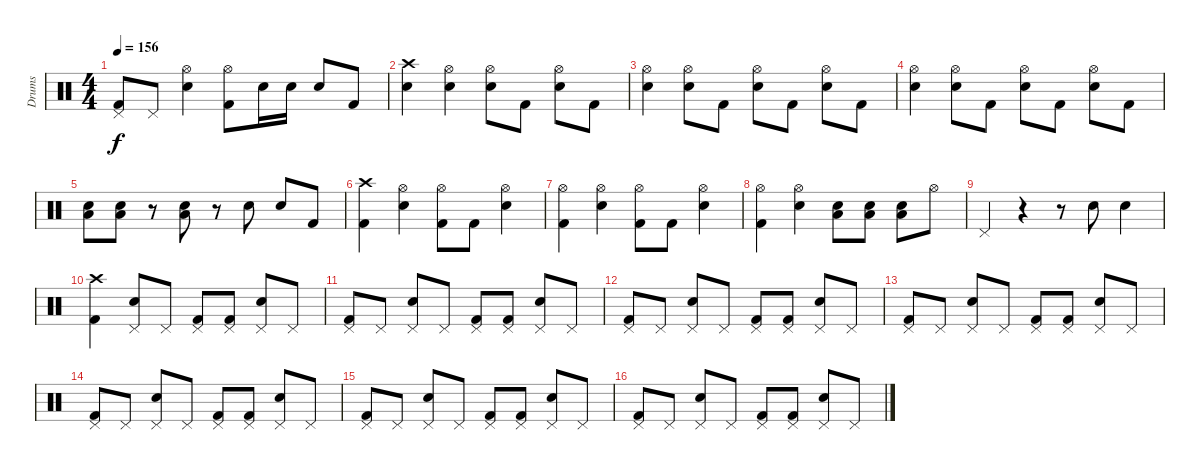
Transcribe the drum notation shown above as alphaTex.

\track ("Drums" "Drums") {instrument percussion}
\staff {score}
\articulation defaults
\ts (4 4)
\tempo 156
\clef neutral
\ks c
("Pedal Hi-Hat (hit)" "Kick (hit) 2").8{dy f} "Pedal Hi-Hat (hit)".8 ("Hi-Hat (open)" "Electric Snare (hit)").4 ("Hi-Hat (open)" "Kick (hit) 2").8 "Electric Snare (hit)".16 "Electric Snare (hit)".16 "Electric Snare (hit)".8 "Kick (hit) 2".8 |
("Crash high (hit)" "Electric Snare (hit)").4 ("Hi-Hat (open)" "Electric Snare (hit)").4 ("Hi-Hat (open)" "Electric Snare (hit)").8 "Kick (hit) 2".8 ("Hi-Hat (open)" "Electric Snare (hit)").8 "Kick (hit) 2".8 |
("Hi-Hat (open)" "Electric Snare (hit)").4 ("Hi-Hat (open)" "Electric Snare (hit)").8 "Kick (hit) 2".8 ("Hi-Hat (open)" "Electric Snare (hit)").8 "Kick (hit) 2".8 ("Hi-Hat (open)" "Electric Snare (hit)").8 "Kick (hit) 2".8 |
("Hi-Hat (open)" "Electric Snare (hit)").4 ("Hi-Hat (open)" "Electric Snare (hit)").8 "Kick (hit) 2".8 ("Hi-Hat (open)" "Electric Snare (hit)").8 "Kick (hit) 2".8 ("Hi-Hat (open)" "Electric Snare (hit)").8 "Kick (hit) 2".8 |
("Low Tom (hit)" "Electric Snare (hit)").8 ("Low Tom (hit)" "Electric Snare (hit)").8 r.8 ("Low Tom (hit)" "Electric Snare (hit)").8 r.8 "Electric Snare (hit)".8 "Electric Snare (hit)".8 "Kick (hit) 2".8 |
("Crash high (hit)" "Kick (hit) 2").4 ("Hi-Hat (open)" "Electric Snare (hit)").4 ("Hi-Hat (open)" "Kick (hit) 2").8 "Kick (hit) 2".8 ("Hi-Hat (open)" "Electric Snare (hit)").4 |
("Hi-Hat (open)" "Kick (hit) 2").4 ("Hi-Hat (open)" "Electric Snare (hit)").4 ("Hi-Hat (open)" "Kick (hit) 2").8 "Kick (hit) 2".8 ("Hi-Hat (open)" "Electric Snare (hit)").4 |
("Hi-Hat (open)" "Kick (hit) 2").4 ("Hi-Hat (open)" "Electric Snare (hit)").4 ("Low Tom (hit)" "Electric Snare (hit)").8 ("Low Tom (hit)" "Electric Snare (hit)").8 ("Low Tom (hit)" "Electric Snare (hit)").8 "Hi-Hat (open)".8 |
"Pedal Hi-Hat (hit)".4 r.4 r.8 "Electric Snare (hit)".8 "Electric Snare (hit)".4 |
("Crash high (hit)" "Kick (hit) 2").4 ("Pedal Hi-Hat (hit)" "Electric Snare (hit)").8 "Pedal Hi-Hat (hit)".8 ("Pedal Hi-Hat (hit)" "Kick (hit) 2").8 ("Pedal Hi-Hat (hit)" "Kick (hit) 2").8 ("Pedal Hi-Hat (hit)" "Electric Snare (hit)").8 "Pedal Hi-Hat (hit)".8 |
("Pedal Hi-Hat (hit)" "Kick (hit) 2").8 "Pedal Hi-Hat (hit)".8 ("Pedal Hi-Hat (hit)" "Electric Snare (hit)").8 "Pedal Hi-Hat (hit)".8 ("Pedal Hi-Hat (hit)" "Kick (hit) 2").8 ("Pedal Hi-Hat (hit)" "Kick (hit) 2").8 ("Pedal Hi-Hat (hit)" "Electric Snare (hit)").8 "Pedal Hi-Hat (hit)".8 |
("Pedal Hi-Hat (hit)" "Kick (hit) 2").8 "Pedal Hi-Hat (hit)".8 ("Pedal Hi-Hat (hit)" "Electric Snare (hit)").8 "Pedal Hi-Hat (hit)".8 ("Pedal Hi-Hat (hit)" "Kick (hit) 2").8 ("Pedal Hi-Hat (hit)" "Kick (hit) 2").8 ("Pedal Hi-Hat (hit)" "Electric Snare (hit)").8 "Pedal Hi-Hat (hit)".8 |
("Pedal Hi-Hat (hit)" "Kick (hit) 2").8 "Pedal Hi-Hat (hit)".8 ("Pedal Hi-Hat (hit)" "Electric Snare (hit)").8 "Pedal Hi-Hat (hit)".8 ("Pedal Hi-Hat (hit)" "Kick (hit) 2").8 ("Pedal Hi-Hat (hit)" "Kick (hit) 2").8 ("Pedal Hi-Hat (hit)" "Electric Snare (hit)").8 "Pedal Hi-Hat (hit)".8 |
("Pedal Hi-Hat (hit)" "Kick (hit) 2").8 "Pedal Hi-Hat (hit)".8 ("Pedal Hi-Hat (hit)" "Electric Snare (hit)").8 "Pedal Hi-Hat (hit)".8 ("Pedal Hi-Hat (hit)" "Kick (hit) 2").8 ("Pedal Hi-Hat (hit)" "Kick (hit) 2").8 ("Pedal Hi-Hat (hit)" "Electric Snare (hit)").8 "Pedal Hi-Hat (hit)".8 |
("Pedal Hi-Hat (hit)" "Kick (hit) 2").8 "Pedal Hi-Hat (hit)".8 ("Pedal Hi-Hat (hit)" "Electric Snare (hit)").8 "Pedal Hi-Hat (hit)".8 ("Pedal Hi-Hat (hit)" "Kick (hit) 2").8 ("Pedal Hi-Hat (hit)" "Kick (hit) 2").8 ("Pedal Hi-Hat (hit)" "Electric Snare (hit)").8 "Pedal Hi-Hat (hit)".8 |
("Pedal Hi-Hat (hit)" "Kick (hit) 2").8 "Pedal Hi-Hat (hit)".8 ("Pedal Hi-Hat (hit)" "Electric Snare (hit)").8 "Pedal Hi-Hat (hit)".8 ("Pedal Hi-Hat (hit)" "Kick (hit) 2").8 ("Pedal Hi-Hat (hit)" "Kick (hit) 2").8 ("Pedal Hi-Hat (hit)" "Electric Snare (hit)").8 "Pedal Hi-Hat (hit)".8
